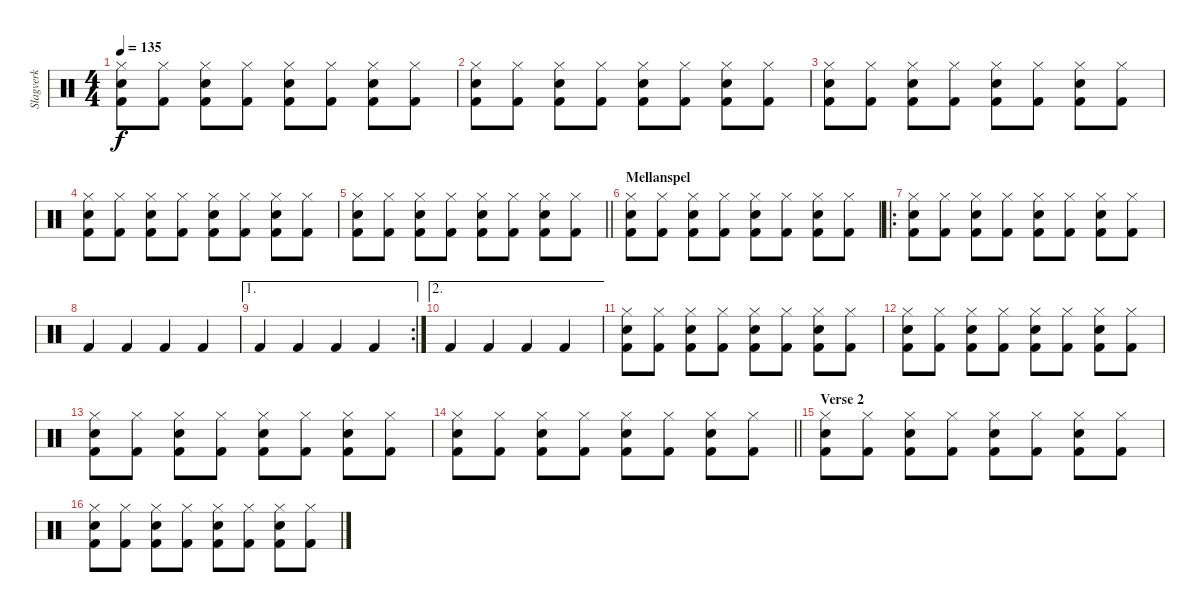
\track ("Slagverk" "Slagverk") {instrument percussion}
\staff {score}
\articulation defaults
\ts (4 4)
\tempo 135
\clef neutral
\ks c
("Hi-Hat (closed)" "Snare (hit) 2" "Kick (hit) 2").8{dy f} ("Hi-Hat (closed)" "Kick (hit) 2").8 ("Hi-Hat (closed)" "Snare (hit) 2" "Kick (hit) 2").8 ("Hi-Hat (closed)" "Kick (hit) 2").8 ("Hi-Hat (closed)" "Snare (hit) 2" "Kick (hit) 2").8 ("Hi-Hat (closed)" "Kick (hit) 2").8 ("Hi-Hat (closed)" "Snare (hit) 2" "Kick (hit) 2").8 ("Hi-Hat (closed)" "Kick (hit) 2").8 |
("Hi-Hat (closed)" "Snare (hit) 2" "Kick (hit) 2").8 ("Hi-Hat (closed)" "Kick (hit) 2").8 ("Hi-Hat (closed)" "Snare (hit) 2" "Kick (hit) 2").8 ("Hi-Hat (closed)" "Kick (hit) 2").8 ("Hi-Hat (closed)" "Snare (hit) 2" "Kick (hit) 2").8 ("Hi-Hat (closed)" "Kick (hit) 2").8 ("Hi-Hat (closed)" "Snare (hit) 2" "Kick (hit) 2").8 ("Hi-Hat (closed)" "Kick (hit) 2").8 |
("Hi-Hat (closed)" "Snare (hit) 2" "Kick (hit) 2").8 ("Hi-Hat (closed)" "Kick (hit) 2").8 ("Hi-Hat (closed)" "Snare (hit) 2" "Kick (hit) 2").8 ("Hi-Hat (closed)" "Kick (hit) 2").8 ("Hi-Hat (closed)" "Snare (hit) 2" "Kick (hit) 2").8 ("Hi-Hat (closed)" "Kick (hit) 2").8 ("Hi-Hat (closed)" "Snare (hit) 2" "Kick (hit) 2").8 ("Hi-Hat (closed)" "Kick (hit) 2").8 |
("Hi-Hat (closed)" "Snare (hit) 2" "Kick (hit) 2").8 ("Hi-Hat (closed)" "Kick (hit) 2").8 ("Hi-Hat (closed)" "Snare (hit) 2" "Kick (hit) 2").8 ("Hi-Hat (closed)" "Kick (hit) 2").8 ("Hi-Hat (closed)" "Snare (hit) 2" "Kick (hit) 2").8 ("Hi-Hat (closed)" "Kick (hit) 2").8 ("Hi-Hat (closed)" "Snare (hit) 2" "Kick (hit) 2").8 ("Hi-Hat (closed)" "Kick (hit) 2").8 |
\barLineRight lightlight
("Hi-Hat (closed)" "Snare (hit) 2" "Kick (hit) 2").8 ("Hi-Hat (closed)" "Kick (hit) 2").8 ("Hi-Hat (closed)" "Snare (hit) 2" "Kick (hit) 2").8 ("Hi-Hat (closed)" "Kick (hit) 2").8 ("Hi-Hat (closed)" "Snare (hit) 2" "Kick (hit) 2").8 ("Hi-Hat (closed)" "Kick (hit) 2").8 ("Hi-Hat (closed)" "Snare (hit) 2" "Kick (hit) 2").8 ("Hi-Hat (closed)" "Kick (hit) 2").8 |
\section ("" "Mellanspel")
("Hi-Hat (closed)" "Snare (hit) 2" "Kick (hit) 2").8 ("Hi-Hat (closed)" "Kick (hit) 2").8 ("Hi-Hat (closed)" "Snare (hit) 2" "Kick (hit) 2").8 ("Hi-Hat (closed)" "Kick (hit) 2").8 ("Hi-Hat (closed)" "Snare (hit) 2" "Kick (hit) 2").8 ("Hi-Hat (closed)" "Kick (hit) 2").8 ("Hi-Hat (closed)" "Snare (hit) 2" "Kick (hit) 2").8 ("Hi-Hat (closed)" "Kick (hit) 2").8 |
\ro
("Hi-Hat (closed)" "Snare (hit) 2" "Kick (hit) 2").8 ("Hi-Hat (closed)" "Kick (hit) 2").8 ("Hi-Hat (closed)" "Snare (hit) 2" "Kick (hit) 2").8 ("Hi-Hat (closed)" "Kick (hit) 2").8 ("Hi-Hat (closed)" "Snare (hit) 2" "Kick (hit) 2").8 ("Hi-Hat (closed)" "Kick (hit) 2").8 ("Hi-Hat (closed)" "Snare (hit) 2" "Kick (hit) 2").8 ("Hi-Hat (closed)" "Kick (hit) 2").8 |
"Kick (hit) 2".4 "Kick (hit) 2".4 "Kick (hit) 2".4 "Kick (hit) 2".4 |
\ae 1
\rc 2 "Kick (hit) 2".4 "Kick (hit) 2".4 "Kick (hit) 2".4 "Kick (hit) 2".4
|
\ae 2 "Kick (hit) 2".4 "Kick (hit) 2".4 "Kick (hit) 2".4 "Kick (hit) 2".4
|
("Hi-Hat (closed)" "Snare (hit) 2" "Kick (hit) 2").8 ("Hi-Hat (closed)" "Kick (hit) 2").8 ("Hi-Hat (closed)" "Snare (hit) 2" "Kick (hit) 2").8 ("Hi-Hat (closed)" "Kick (hit) 2").8 ("Hi-Hat (closed)" "Snare (hit) 2" "Kick (hit) 2").8 ("Hi-Hat (closed)" "Kick (hit) 2").8 ("Hi-Hat (closed)" "Snare (hit) 2" "Kick (hit) 2").8 ("Hi-Hat (closed)" "Kick (hit) 2").8 |
("Hi-Hat (closed)" "Snare (hit) 2" "Kick (hit) 2").8 ("Hi-Hat (closed)" "Kick (hit) 2").8 ("Hi-Hat (closed)" "Snare (hit) 2" "Kick (hit) 2").8 ("Hi-Hat (closed)" "Kick (hit) 2").8 ("Hi-Hat (closed)" "Snare (hit) 2" "Kick (hit) 2").8 ("Hi-Hat (closed)" "Kick (hit) 2").8 ("Hi-Hat (closed)" "Snare (hit) 2" "Kick (hit) 2").8 ("Hi-Hat (closed)" "Kick (hit) 2").8 |
("Hi-Hat (closed)" "Snare (hit) 2" "Kick (hit) 2").8 ("Hi-Hat (closed)" "Kick (hit) 2").8 ("Hi-Hat (closed)" "Snare (hit) 2" "Kick (hit) 2").8 ("Hi-Hat (closed)" "Kick (hit) 2").8 ("Hi-Hat (closed)" "Snare (hit) 2" "Kick (hit) 2").8 ("Hi-Hat (closed)" "Kick (hit) 2").8 ("Hi-Hat (closed)" "Snare (hit) 2" "Kick (hit) 2").8 ("Hi-Hat (closed)" "Kick (hit) 2").8 |
\barLineRight lightlight
("Hi-Hat (closed)" "Snare (hit) 2" "Kick (hit) 2").8 ("Hi-Hat (closed)" "Kick (hit) 2").8 ("Hi-Hat (closed)" "Snare (hit) 2" "Kick (hit) 2").8 ("Hi-Hat (closed)" "Kick (hit) 2").8 ("Hi-Hat (closed)" "Snare (hit) 2" "Kick (hit) 2").8 ("Hi-Hat (closed)" "Kick (hit) 2").8 ("Hi-Hat (closed)" "Snare (hit) 2" "Kick (hit) 2").8 ("Hi-Hat (closed)" "Kick (hit) 2").8 |
\section ("" "Verse 2")
("Hi-Hat (closed)" "Snare (hit) 2" "Kick (hit) 2").8 ("Hi-Hat (closed)" "Kick (hit) 2").8 ("Hi-Hat (closed)" "Snare (hit) 2" "Kick (hit) 2").8 ("Hi-Hat (closed)" "Kick (hit) 2").8 ("Hi-Hat (closed)" "Snare (hit) 2" "Kick (hit) 2").8 ("Hi-Hat (closed)" "Kick (hit) 2").8 ("Hi-Hat (closed)" "Snare (hit) 2" "Kick (hit) 2").8 ("Hi-Hat (closed)" "Kick (hit) 2").8 |
("Hi-Hat (closed)" "Snare (hit) 2" "Kick (hit) 2").8 ("Hi-Hat (closed)" "Kick (hit) 2").8 ("Hi-Hat (closed)" "Snare (hit) 2" "Kick (hit) 2").8 ("Hi-Hat (closed)" "Kick (hit) 2").8 ("Hi-Hat (closed)" "Snare (hit) 2" "Kick (hit) 2").8 ("Hi-Hat (closed)" "Kick (hit) 2").8 ("Hi-Hat (closed)" "Snare (hit) 2" "Kick (hit) 2").8 ("Hi-Hat (closed)" "Kick (hit) 2").8
